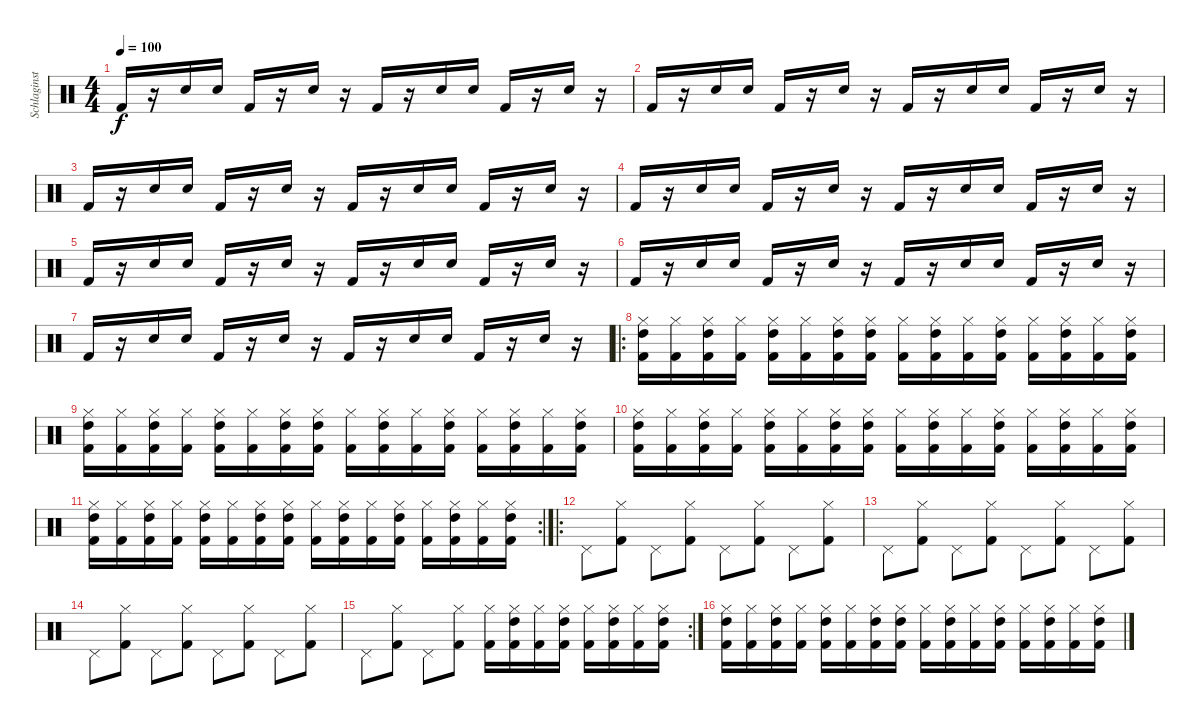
\track ("Schlaginstrumente - Auswahl" "Schlaginst") {instrument percussion}
\staff {score}
\articulation defaults
\ts (4 4)
\tempo 100
\clef neutral
\ks c "Kick (hit) 2".16{dy f}
r.16 "Snare (hit) 2".16 "Snare (hit) 2".16 "Kick (hit) 2".16 r.16 "Snare (hit) 2".16 r.16 "Kick (hit) 2".16 r.16 "Snare (hit) 2".16 "Snare (hit) 2".16 "Kick (hit) 2".16 r.16 "Snare (hit) 2".16 r.16 |
"Kick (hit) 2".16 r.16 "Snare (hit) 2".16 "Snare (hit) 2".16 "Kick (hit) 2".16 r.16 "Snare (hit) 2".16 r.16 "Kick (hit) 2".16 r.16 "Snare (hit) 2".16 "Snare (hit) 2".16 "Kick (hit) 2".16 r.16 "Snare (hit) 2".16 r.16 |
"Kick (hit) 2".16 r.16 "Snare (hit) 2".16 "Snare (hit) 2".16 "Kick (hit) 2".16 r.16 "Snare (hit) 2".16 r.16 "Kick (hit) 2".16 r.16 "Snare (hit) 2".16 "Snare (hit) 2".16 "Kick (hit) 2".16 r.16 "Snare (hit) 2".16 r.16 |
"Kick (hit) 2".16 r.16 "Snare (hit) 2".16 "Snare (hit) 2".16 "Kick (hit) 2".16 r.16 "Snare (hit) 2".16 r.16 "Kick (hit) 2".16 r.16 "Snare (hit) 2".16 "Snare (hit) 2".16 "Kick (hit) 2".16 r.16 "Snare (hit) 2".16 r.16 |
"Kick (hit) 2".16 r.16 "Snare (hit) 2".16 "Snare (hit) 2".16 "Kick (hit) 2".16 r.16 "Snare (hit) 2".16 r.16 "Kick (hit) 2".16 r.16 "Snare (hit) 2".16 "Snare (hit) 2".16 "Kick (hit) 2".16 r.16 "Snare (hit) 2".16 r.16 |
"Kick (hit) 2".16 r.16 "Snare (hit) 2".16 "Snare (hit) 2".16 "Kick (hit) 2".16 r.16 "Snare (hit) 2".16 r.16 "Kick (hit) 2".16 r.16 "Snare (hit) 2".16 "Snare (hit) 2".16 "Kick (hit) 2".16 r.16 "Snare (hit) 2".16 r.16 |
"Kick (hit) 2".16 r.16 "Snare (hit) 2".16 "Snare (hit) 2".16 "Kick (hit) 2".16 r.16 "Snare (hit) 2".16 r.16 "Kick (hit) 2".16 r.16 "Snare (hit) 2".16 "Snare (hit) 2".16 "Kick (hit) 2".16 r.16 "Snare (hit) 2".16 r.16 |
\ro
("Hi-Hat (closed)" "Kick (hit) 2" "High Tom (hit)").16 ("Hi-Hat (closed)" "Kick (hit) 2").16 ("Hi-Hat (closed)" "Kick (hit) 2" "High Tom (hit)").16 ("Hi-Hat (closed)" "Kick (hit) 2").16 ("Hi-Hat (closed)" "Kick (hit) 2" "High Tom (hit)").16 ("Hi-Hat (closed)" "Kick (hit) 2").16 ("Hi-Hat (closed)" "Kick (hit) 2" "High Tom (hit)").16 ("Hi-Hat (closed)" "Kick (hit) 2" "High Tom (hit)").16 ("Hi-Hat (closed)" "Kick (hit) 2").16 ("Hi-Hat (closed)" "Kick (hit) 2" "High Tom (hit)").16 ("Hi-Hat (closed)" "Kick (hit) 2").16 ("Hi-Hat (closed)" "Kick (hit) 2" "High Tom (hit)").16 ("Hi-Hat (closed)" "Kick (hit) 2").16 ("Hi-Hat (closed)" "Kick (hit) 2" "High Tom (hit)").16 ("Hi-Hat (closed)" "Kick (hit) 2").16 ("Hi-Hat (closed)" "Kick (hit) 2" "High Tom (hit)").16 |
("Hi-Hat (closed)" "Kick (hit) 2" "High Tom (hit)").16 ("Hi-Hat (closed)" "Kick (hit) 2").16 ("Hi-Hat (closed)" "Kick (hit) 2" "High Tom (hit)").16 ("Hi-Hat (closed)" "Kick (hit) 2").16 ("Hi-Hat (closed)" "Kick (hit) 2" "High Tom (hit)").16 ("Hi-Hat (closed)" "Kick (hit) 2").16 ("Hi-Hat (closed)" "Kick (hit) 2" "High Tom (hit)").16 ("Hi-Hat (closed)" "Kick (hit) 2" "High Tom (hit)").16 ("Hi-Hat (closed)" "Kick (hit) 2").16 ("Hi-Hat (closed)" "Kick (hit) 2" "High Tom (hit)").16 ("Hi-Hat (closed)" "Kick (hit) 2").16 ("Hi-Hat (closed)" "Kick (hit) 2" "High Tom (hit)").16 ("Hi-Hat (closed)" "Kick (hit) 2").16 ("Hi-Hat (closed)" "Kick (hit) 2" "High Tom (hit)").16 ("Hi-Hat (closed)" "Kick (hit) 2").16 ("Hi-Hat (closed)" "Kick (hit) 2" "High Tom (hit)").16 |
("Hi-Hat (closed)" "Kick (hit) 2" "High Tom (hit)").16 ("Hi-Hat (closed)" "Kick (hit) 2").16 ("Hi-Hat (closed)" "Kick (hit) 2" "High Tom (hit)").16 ("Hi-Hat (closed)" "Kick (hit) 2").16 ("Hi-Hat (closed)" "Kick (hit) 2" "High Tom (hit)").16 ("Hi-Hat (closed)" "Kick (hit) 2").16 ("Hi-Hat (closed)" "Kick (hit) 2" "High Tom (hit)").16 ("Hi-Hat (closed)" "Kick (hit) 2" "High Tom (hit)").16 ("Hi-Hat (closed)" "Kick (hit) 2").16 ("Hi-Hat (closed)" "Kick (hit) 2" "High Tom (hit)").16 ("Hi-Hat (closed)" "Kick (hit) 2").16 ("Hi-Hat (closed)" "Kick (hit) 2" "High Tom (hit)").16 ("Hi-Hat (closed)" "Kick (hit) 2").16 ("Hi-Hat (closed)" "Kick (hit) 2" "High Tom (hit)").16 ("Hi-Hat (closed)" "Kick (hit) 2").16 ("Hi-Hat (closed)" "Kick (hit) 2" "High Tom (hit)").16 |
\rc 2
("Hi-Hat (closed)" "Kick (hit) 2" "High Tom (hit)").16 ("Hi-Hat (closed)" "Kick (hit) 2").16 ("Hi-Hat (closed)" "Kick (hit) 2" "High Tom (hit)").16 ("Hi-Hat (closed)" "Kick (hit) 2").16 ("Hi-Hat (closed)" "Kick (hit) 2" "High Tom (hit)").16 ("Hi-Hat (closed)" "Kick (hit) 2").16 ("Hi-Hat (closed)" "Kick (hit) 2" "High Tom (hit)").16 ("Hi-Hat (closed)" "Kick (hit) 2" "High Tom (hit)").16 ("Hi-Hat (closed)" "Kick (hit) 2").16 ("Hi-Hat (closed)" "Kick (hit) 2" "High Tom (hit)").16 ("Hi-Hat (closed)" "Kick (hit) 2").16 ("Hi-Hat (closed)" "Kick (hit) 2" "High Tom (hit)").16 ("Hi-Hat (closed)" "Kick (hit) 2").16 ("Hi-Hat (closed)" "Kick (hit) 2" "High Tom (hit)").16 ("Hi-Hat (closed)" "Kick (hit) 2").16 ("Hi-Hat (closed)" "Kick (hit) 2" "High Tom (hit)").16 |
\ro "Pedal Hi-Hat (hit)".8
("Hi-Hat (closed)" "Kick (hit) 2").8 "Pedal Hi-Hat (hit)".8 ("Hi-Hat (closed)" "Kick (hit) 2").8 "Pedal Hi-Hat (hit)".8 ("Hi-Hat (closed)" "Kick (hit) 2").8 "Pedal Hi-Hat (hit)".8 ("Hi-Hat (closed)" "Kick (hit) 2").8 |
"Pedal Hi-Hat (hit)".8 ("Hi-Hat (closed)" "Kick (hit) 2").8 "Pedal Hi-Hat (hit)".8 ("Hi-Hat (closed)" "Kick (hit) 2").8 "Pedal Hi-Hat (hit)".8 ("Hi-Hat (closed)" "Kick (hit) 2").8 "Pedal Hi-Hat (hit)".8 ("Hi-Hat (closed)" "Kick (hit) 2").8 |
"Pedal Hi-Hat (hit)".8 ("Hi-Hat (closed)" "Kick (hit) 2").8 "Pedal Hi-Hat (hit)".8 ("Hi-Hat (closed)" "Kick (hit) 2").8 "Pedal Hi-Hat (hit)".8 ("Hi-Hat (closed)" "Kick (hit) 2").8 "Pedal Hi-Hat (hit)".8 ("Hi-Hat (closed)" "Kick (hit) 2").8 |
\rc 2 "Pedal Hi-Hat (hit)".8
("Hi-Hat (closed)" "Kick (hit) 2").8 "Pedal Hi-Hat (hit)".8 ("Hi-Hat (closed)" "Kick (hit) 2").8 ("Hi-Hat (closed)" "Kick (hit) 2").16 ("Hi-Hat (closed)" "Kick (hit) 2" "High Tom (hit)").16 ("Hi-Hat (closed)" "Kick (hit) 2").16 ("Hi-Hat (closed)" "Kick (hit) 2" "High Tom (hit)").16 ("Hi-Hat (closed)" "Kick (hit) 2").16 ("Hi-Hat (closed)" "Kick (hit) 2" "High Tom (hit)").16 ("Hi-Hat (closed)" "Kick (hit) 2").16 ("Hi-Hat (closed)" "Kick (hit) 2" "High Tom (hit)").16 |
("Hi-Hat (closed)" "Kick (hit) 2" "High Tom (hit)").16 ("Hi-Hat (closed)" "Kick (hit) 2").16 ("Hi-Hat (closed)" "Kick (hit) 2" "High Tom (hit)").16 ("Hi-Hat (closed)" "Kick (hit) 2").16 ("Hi-Hat (closed)" "Kick (hit) 2" "High Tom (hit)").16 ("Hi-Hat (closed)" "Kick (hit) 2").16 ("Hi-Hat (closed)" "Kick (hit) 2" "High Tom (hit)").16 ("Hi-Hat (closed)" "Kick (hit) 2" "High Tom (hit)").16 ("Hi-Hat (closed)" "Kick (hit) 2").16 ("Hi-Hat (closed)" "Kick (hit) 2" "High Tom (hit)").16 ("Hi-Hat (closed)" "Kick (hit) 2").16 ("Hi-Hat (closed)" "Kick (hit) 2" "High Tom (hit)").16 ("Hi-Hat (closed)" "Kick (hit) 2").16 ("Hi-Hat (closed)" "Kick (hit) 2" "High Tom (hit)").16 ("Hi-Hat (closed)" "Kick (hit) 2").16 ("Hi-Hat (closed)" "Kick (hit) 2" "High Tom (hit)").16
